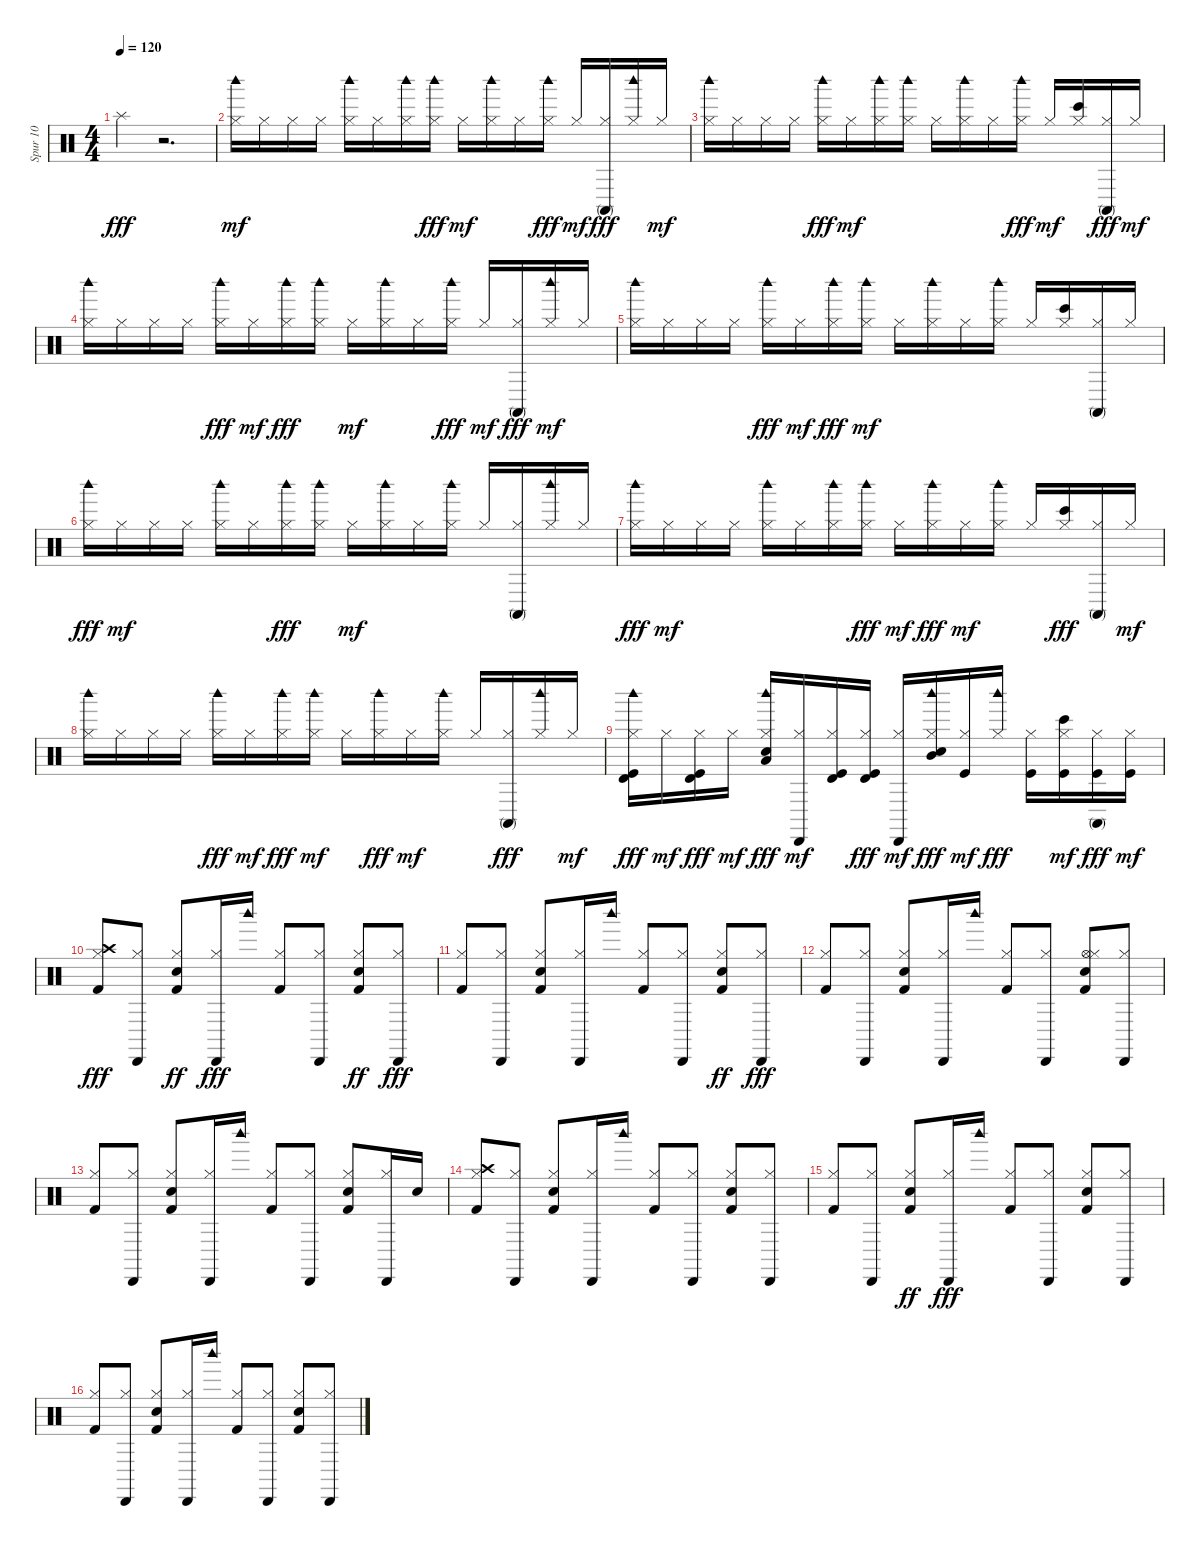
\track ("Spur 10" "Spur 10") {instrument percussion}
\staff {score}
\articulation defaults
\ts (4 4)
\tempo 120
\clef neutral
\ks c "Splash (hit)".4{dy fff}
r.2{d} |
("Woodblock high (hit)" "Hi-Hat (closed)").16{dy mf} "Hi-Hat (closed)".16 "Hi-Hat (closed)".16 "Hi-Hat (closed)".16 ("Woodblock high (hit)" "Hi-Hat (closed)").16 "Hi-Hat (closed)".16 ("Woodblock high (hit)" "Hi-Hat (closed)").16 ("Hi-Hat (closed)" "Woodblock high (hit)").16{dy fff} "Hi-Hat (closed)".16{dy mf} ("Woodblock high (hit)" "Hi-Hat (closed)").16 "Hi-Hat (closed)".16 ("Hi-Hat (closed)" "Woodblock high (hit)").16{dy fff} "Hi-Hat (closed)".16{dy mf} ("Hi-Hat (closed)" "Conga high (mute)").16{dy fff} ("Hi-Hat (closed)" "Woodblock high (hit)").16 "Hi-Hat (closed)".16{dy mf} |
("Woodblock high (hit)" "Hi-Hat (closed)").16 "Hi-Hat (closed)".16 "Hi-Hat (closed)".16 "Hi-Hat (closed)".16 ("Hi-Hat (closed)" "Woodblock high (hit)").16{dy fff} "Hi-Hat (closed)".16{dy mf} ("Woodblock high (hit)" "Hi-Hat (closed)").16 ("Woodblock high (hit)" "Hi-Hat (closed)").16 "Hi-Hat (closed)".16 ("Woodblock high (hit)" "Hi-Hat (closed)").16 "Hi-Hat (closed)".16 ("Hi-Hat (closed)" "Woodblock high (hit)").16{dy fff} "Hi-Hat (closed)".16{dy mf} ("Bongo High (hit)" "Hi-Hat (closed)").16 ("Hi-Hat (closed)" "Conga high (mute)").16{dy fff} "Hi-Hat (closed)".16{dy mf} |
("Woodblock high (hit)" "Hi-Hat (closed)").16 "Hi-Hat (closed)".16 "Hi-Hat (closed)".16 "Hi-Hat (closed)".16 ("Hi-Hat (closed)" "Woodblock high (hit)").16{dy fff} "Hi-Hat (closed)".16{dy mf} ("Hi-Hat (closed)" "Woodblock high (hit)").16{dy fff} ("Hi-Hat (closed)" "Woodblock high (hit)").16 "Hi-Hat (closed)".16{dy mf} ("Woodblock high (hit)" "Hi-Hat (closed)").16 "Hi-Hat (closed)".16 ("Hi-Hat (closed)" "Woodblock high (hit)").16{dy fff} "Hi-Hat (closed)".16{dy mf} ("Hi-Hat (closed)" "Conga high (mute)").16{dy fff} ("Woodblock high (hit)" "Hi-Hat (closed)").16{dy mf} "Hi-Hat (closed)".16 |
("Woodblock high (hit)" "Hi-Hat (closed)").16 "Hi-Hat (closed)".16 "Hi-Hat (closed)".16 "Hi-Hat (closed)".16 ("Hi-Hat (closed)" "Woodblock high (hit)").16{dy fff} "Hi-Hat (closed)".16{dy mf} ("Hi-Hat (closed)" "Woodblock high (hit)").16{dy fff} ("Woodblock high (hit)" "Hi-Hat (closed)").16{dy mf} "Hi-Hat (closed)".16 ("Woodblock high (hit)" "Hi-Hat (closed)").16 "Hi-Hat (closed)".16 ("Woodblock high (hit)" "Hi-Hat (closed)").16 "Hi-Hat (closed)".16 ("Bongo High (hit)" "Hi-Hat (closed)").16 ("Conga high (mute)" "Hi-Hat (closed)").16 "Hi-Hat (closed)".16 |
("Hi-Hat (closed)" "Woodblock high (hit)").16{dy fff} "Hi-Hat (closed)".16{dy mf} "Hi-Hat (closed)".16 "Hi-Hat (closed)".16 ("Woodblock high (hit)" "Hi-Hat (closed)").16 "Hi-Hat (closed)".16 ("Hi-Hat (closed)" "Woodblock high (hit)").16{dy fff} ("Hi-Hat (closed)" "Woodblock high (hit)").16 "Hi-Hat (closed)".16{dy mf} ("Woodblock high (hit)" "Hi-Hat (closed)").16 "Hi-Hat (closed)".16 ("Woodblock high (hit)" "Hi-Hat (closed)").16 "Hi-Hat (closed)".16 ("Conga high (mute)" "Hi-Hat (closed)").16 ("Woodblock high (hit)" "Hi-Hat (closed)").16 "Hi-Hat (closed)".16 |
("Hi-Hat (closed)" "Woodblock high (hit)").16{dy fff} "Hi-Hat (closed)".16{dy mf} "Hi-Hat (closed)".16 "Hi-Hat (closed)".16 ("Woodblock high (hit)" "Hi-Hat (closed)").16 "Hi-Hat (closed)".16 ("Woodblock high (hit)" "Hi-Hat (closed)").16 ("Hi-Hat (closed)" "Woodblock high (hit)").16{dy fff} "Hi-Hat (closed)".16{dy mf} ("Hi-Hat (closed)" "Woodblock high (hit)").16{dy fff} "Hi-Hat (closed)".16{dy mf} ("Woodblock high (hit)" "Hi-Hat (closed)").16 "Hi-Hat (closed)".16 ("Hi-Hat (closed)" "Bongo High (hit)").16{dy fff} ("Hi-Hat (closed)" "Conga high (mute)").16 "Hi-Hat (closed)".16{dy mf} |
("Woodblock high (hit)" "Hi-Hat (closed)").16 "Hi-Hat (closed)".16 "Hi-Hat (closed)".16 "Hi-Hat (closed)".16 ("Hi-Hat (closed)" "Woodblock high (hit)").16{dy fff} "Hi-Hat (closed)".16{dy mf} ("Hi-Hat (closed)" "Woodblock high (hit)").16{dy fff} ("Woodblock high (hit)" "Hi-Hat (closed)").16{dy mf} "Hi-Hat (closed)".16 ("Hi-Hat (closed)" "Woodblock high (hit)").16{dy fff} "Hi-Hat (closed)".16{dy mf} ("Woodblock high (hit)" "Hi-Hat (closed)").16 "Hi-Hat (closed)".16 ("Hi-Hat (closed)" "Conga high (mute)").16{dy fff} ("Hi-Hat (closed)" "Woodblock high (hit)").16 "Hi-Hat (closed)".16{dy mf} |
("Kick (hit)" "Hi-Hat (closed)" "Timbale high (hit)" "Woodblock high (hit)").16{dy fff} "Hi-Hat (closed)".16{dy mf} ("Timbale high (hit)" "Hi-Hat (closed)" "Kick (hit)").16{dy fff} "Hi-Hat (closed)".16{dy mf} ("Hi-Hat (closed)" "Woodblock high (hit)" "Snare (hit) 2" "Low Floor Tom (hit)").16{dy fff} ("Cabasa (hit)" "Hi-Hat (closed)").16{dy mf} ("Timbale high (hit)" "Kick (hit)" "Hi-Hat (closed)").16 ("Hi-Hat (closed)" "Kick (hit)" "Timbale high (hit)").16{dy fff} ("Hi-Hat (closed)" "Cabasa (hit)").16{dy mf} ("Hi-Hat (closed)" "Snare (hit) 2" "Mid Tom (hit)" "Woodblock high (hit)").16{dy fff} ("Hi-Hat (closed)" "Kick (hit)").16{dy mf} ("Hi-Hat (closed)" "Woodblock high (hit)").16{dy fff} ("Hi-Hat (closed)" "Kick (hit)").16 ("Bongo High (hit)" "Kick (hit)" "Hi-Hat (closed)").16{dy mf} ("Conga high (mute)" "Hi-Hat (closed)" "Kick (hit)").16{dy fff} ("Kick (hit)" "Hi-Hat (closed)").16{dy mf} |
("Crash high (hit)" "Kick (hit) 2" "Hi-Hat (closed)").8{dy fff} ("Cabasa (hit)" "Hi-Hat (closed)").8 ("Kick (hit) 2" "Hi-Hat (closed)" "Hand Clap (hit)").8{dy ff} ("Hi-Hat (closed)" "Cabasa (hit)").16{dy fff} "Woodblock high (hit)".16 ("Kick (hit) 2" "Hi-Hat (closed)").8 ("Cabasa (hit)" "Hi-Hat (closed)").8 ("Hi-Hat (closed)" "Kick (hit) 2" "Hand Clap (hit)").8{dy ff} ("Hi-Hat (closed)" "Cabasa (hit)").8{dy fff} |
("Hi-Hat (closed)" "Kick (hit) 2").8 ("Cabasa (hit)" "Hi-Hat (closed)").8 ("Hi-Hat (closed)" "Hand Clap (hit)" "Kick (hit) 2").8 ("Hi-Hat (closed)" "Cabasa (hit)").16 "Woodblock high (hit)".16 ("Kick (hit) 2" "Hi-Hat (closed)").8 ("Hi-Hat (closed)" "Cabasa (hit)").8 ("Kick (hit) 2" "Hi-Hat (closed)" "Hand Clap (hit)").8{dy ff} ("Hi-Hat (closed)" "Cabasa (hit)").8{dy fff} |
("Kick (hit) 2" "Hi-Hat (closed)").8 ("Cabasa (hit)" "Hi-Hat (closed)").8 ("Hand Clap (hit)" "Kick (hit) 2" "Hi-Hat (closed)").8 ("Cabasa (hit)" "Hi-Hat (closed)").16 "Woodblock high (hit)".16 ("Kick (hit) 2" "Hi-Hat (closed)").8 ("Cabasa (hit)" "Hi-Hat (closed)").8 ("Hi-Hat (open)" "Hi-Hat (closed)" "Hand Clap (hit)" "Kick (hit) 2").8 ("Hi-Hat (closed)" "Cabasa (hit)").8 |
("Kick (hit) 2" "Hi-Hat (closed)").8 ("Cabasa (hit)" "Hi-Hat (closed)").8 ("Kick (hit) 2" "Hand Clap (hit)" "Hi-Hat (closed)").8 ("Hi-Hat (closed)" "Cabasa (hit)").16 "Woodblock high (hit)".16 ("Kick (hit) 2" "Hi-Hat (closed)").8 ("Cabasa (hit)" "Hi-Hat (closed)").8 ("Hand Clap (hit)" "Hi-Hat (closed)" "Kick (hit) 2").8 ("Cabasa (hit)" "Hi-Hat (closed)").16 "Hand Clap (hit)".16 |
("Kick (hit) 2" "Crash high (hit)" "Hi-Hat (closed)").8 ("Cabasa (hit)" "Hi-Hat (closed)").8 ("Hand Clap (hit)" "Kick (hit) 2" "Hi-Hat (closed)").8 ("Hi-Hat (closed)" "Cabasa (hit)").16 "Woodblock high (hit)".16 ("Hi-Hat (closed)" "Kick (hit) 2").8 ("Cabasa (hit)" "Hi-Hat (closed)").8 ("Hand Clap (hit)" "Kick (hit) 2" "Hi-Hat (closed)").8 ("Cabasa (hit)" "Hi-Hat (closed)").8 |
("Hi-Hat (closed)" "Kick (hit) 2").8 ("Cabasa (hit)" "Hi-Hat (closed)").8 ("Hi-Hat (closed)" "Kick (hit) 2" "Hand Clap (hit)").8{dy ff} ("Cabasa (hit)" "Hi-Hat (closed)").16{dy fff} "Woodblock high (hit)".16 ("Hi-Hat (closed)" "Kick (hit) 2").8 ("Cabasa (hit)" "Hi-Hat (closed)").8 ("Hand Clap (hit)" "Kick (hit) 2" "Hi-Hat (closed)").8 ("Hi-Hat (closed)" "Cabasa (hit)").8 |
("Hi-Hat (closed)" "Kick (hit) 2").8 ("Hi-Hat (closed)" "Cabasa (hit)").8 ("Kick (hit) 2" "Hand Clap (hit)" "Hi-Hat (closed)").8 ("Cabasa (hit)" "Hi-Hat (closed)").16 "Woodblock high (hit)".16 ("Hi-Hat (closed)" "Kick (hit) 2").8 ("Hi-Hat (closed)" "Cabasa (hit)").8 ("Hand Clap (hit)" "Kick (hit) 2" "Hi-Hat (closed)").8 ("Cabasa (hit)" "Hi-Hat (closed)").8
